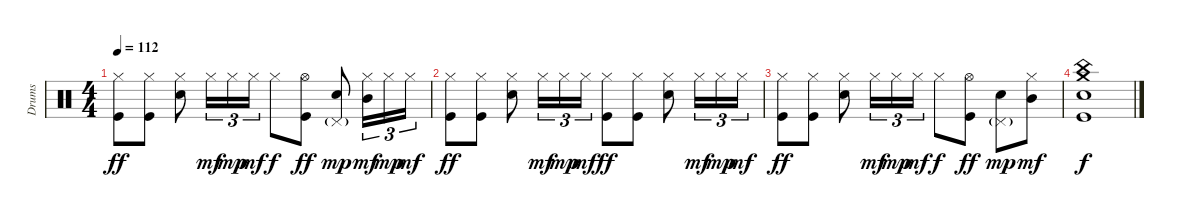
\track ("Drums" "Drums") {instrument percussion}
\staff {score}
\articulation defaults
\ts (4 4)
\tempo 112
\clef neutral
\ks c
("Hi-Hat (closed)" "Kick (hit)").8{dy ff} ("Hi-Hat (closed)" "Kick (hit)").8 ("Hi-Hat (closed)" "Electric Snare (hit)").8 "Hi-Hat (closed)".16{tu (3 2) dy mf} "Hi-Hat (closed)".16{tu (3 2) dy mp} "Hi-Hat (closed)".16{tu (3 2) dy mf} "Hi-Hat (closed)".8{dy f} ("Hi-Hat (open)" "Kick (hit)").8{dy ff} ("Pedal Hi-Hat (hit)"{g} "Electric Snare (hit)").8{dy mp} ("Hi-Hat (closed)" "Mid Tom (hit)").16{tu (3 2) dy mf} "Hi-Hat (closed)".16{tu (3 2) dy mp} "Hi-Hat (closed)".16{tu (3 2) dy mf} |
("Hi-Hat (closed)" "Kick (hit)").8{dy ff} ("Hi-Hat (closed)" "Kick (hit)").8 ("Hi-Hat (closed)" "Electric Snare (hit)").8 "Hi-Hat (closed)".16{tu (3 2) dy mf} "Hi-Hat (closed)".16{tu (3 2) dy mp} "Hi-Hat (closed)".16{tu (3 2) dy mf} ("Hi-Hat (closed)" "Kick (hit)").8{dy ff} ("Hi-Hat (closed)" "Kick (hit)").8 ("Hi-Hat (closed)" "Electric Snare (hit)").8 "Hi-Hat (closed)".16{tu (3 2) dy mf} "Hi-Hat (closed)".16{tu (3 2) dy mp} "Hi-Hat (closed)".16{tu (3 2) dy mf} |
("Hi-Hat (closed)" "Kick (hit)").8{dy ff} ("Hi-Hat (closed)" "Kick (hit)").8 ("Hi-Hat (closed)" "Electric Snare (hit)").8 "Hi-Hat (closed)".16{tu (3 2) dy mf} "Hi-Hat (closed)".16{tu (3 2) dy mp} "Hi-Hat (closed)".16{tu (3 2) dy mf} "Hi-Hat (closed)".8{dy f} ("Hi-Hat (open)" "Kick (hit)").8{dy ff} ("Pedal Hi-Hat (hit)"{g} "Electric Snare (hit)").8{dy mp} ("Hi-Hat (closed)" "Mid Tom (hit)").8{dy mf} |
("Crash medium (hit)" "China (hit)" "Electric Snare (hit)" "Kick (hit)").1{dy f}
